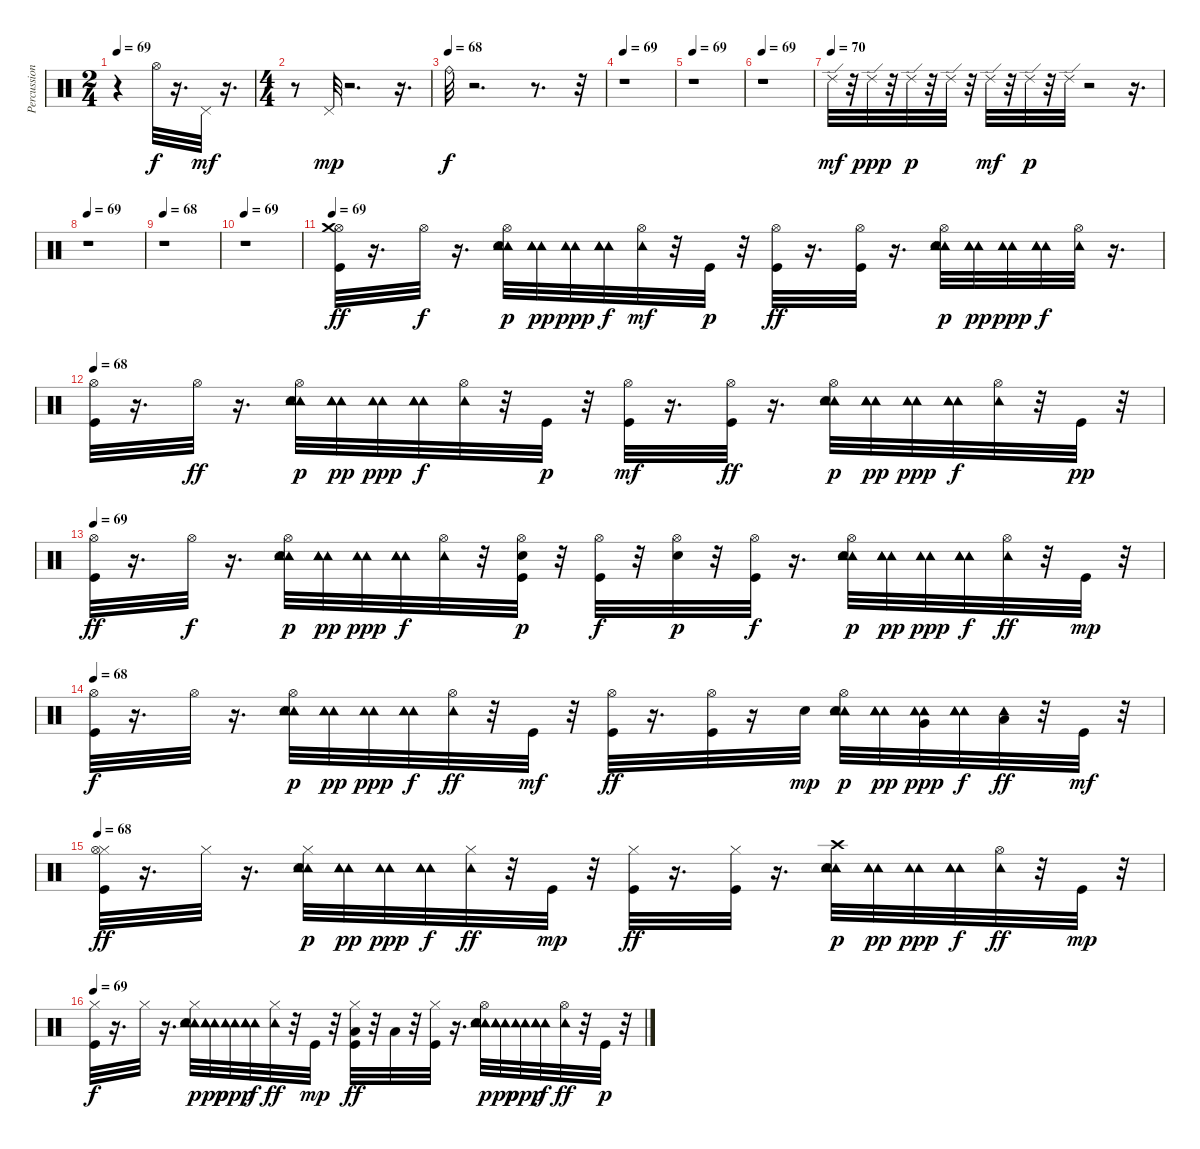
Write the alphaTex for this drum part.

\track ("Percussions" "Percussion") {instrument percussion}
\staff {score}
\articulation defaults
\ts (2 4)
\tempo 69
\clef neutral
\ks c
r.4{dy mf} "Hi-Hat (open)".32{dy f} r.16{d} "Pedal Hi-Hat (hit)".32{dy mf} r.16{d} |
\ts (4 4)
r.8 "Pedal Hi-Hat (hit)".32{dy mp} r.2{d} r.16{d} |
\tempo (68)
"Ride (bell)".32{dy f} r.2{d} r.8{d} r.32 |
\tempo 69
r.1 |
\tempo 69
r.1 |
\tempo 69
r.1 |
\tempo (70)
"Ride (edge) 2".32{dy mf} r.32 "Ride (edge) 2".32{dy ppp} r.32 "Ride (edge) 2".32{dy p} r.32 "Ride (edge) 2".32 r.32 "Ride (edge) 2".32{dy mf} r.32 "Ride (edge) 2".32{dy p} r.32 "Ride (edge) 2".32 r.2 r.16{d} |
\tempo 69
r.1 |
\tempo 68
r.1 |
\tempo 69
r.1 |
\tempo 69
("Kick (hit)" "Hi-Hat (open)" "Crash medium (hit)").32{dy ff} r.16{d} "Hi-Hat (open)".32{dy f} r.16{d} ("Tambourine (hit)" "Tambourine (hit)" "Electric Snare (hit)" "Hi-Hat (open)" "Tambourine (hit)").32{dy p} ("Tambourine (hit)" "Tambourine (hit)" "Tambourine (hit)").32{dy pp} ("Tambourine (hit)" "Tambourine (hit)").32{dy ppp} ("Tambourine (hit)" "Tambourine (hit)" "Tambourine (hit)").32{dy f} ("Tambourine (hit)" "Hi-Hat (open)").32{dy mf} r.32 "Kick (hit)".32{dy p} r.32 ("Kick (hit)" "Hi-Hat (open)").32{dy ff} r.16{d} ("Kick (hit)" "Hi-Hat (open)").32 r.16{d} ("Tambourine (hit)" "Hi-Hat (open)" "Tambourine (hit)" "Electric Snare (hit)" "Tambourine (hit)").32{dy p} ("Tambourine (hit)" "Tambourine (hit)" "Tambourine (hit)").32{dy pp} ("Tambourine (hit)" "Tambourine (hit)").32{dy ppp} ("Tambourine (hit)" "Tambourine (hit)" "Tambourine (hit)").32{dy f} ("Tambourine (hit)" "Hi-Hat (open)").32 r.16{d} |
\tempo 68
("Kick (hit)" "Hi-Hat (open)").32 r.16{d} "Hi-Hat (open)".32{dy ff} r.16{d} ("Tambourine (hit)" "Electric Snare (hit)" "Tambourine (hit)" "Hi-Hat (open)" "Tambourine (hit)").32{dy p} ("Tambourine (hit)" "Tambourine (hit)" "Tambourine (hit)").32{dy pp} ("Tambourine (hit)" "Tambourine (hit)").32{dy ppp} ("Tambourine (hit)" "Tambourine (hit)" "Tambourine (hit)").32{dy f} ("Tambourine (hit)" "Hi-Hat (open)").32 r.32 "Kick (hit)".32{dy p} r.32 ("Kick (hit)" "Hi-Hat (open)").32{dy mf} r.16{d} ("Hi-Hat (open)" "Kick (hit)").32{dy ff} r.16{d} ("Tambourine (hit)" "Hi-Hat (open)" "Electric Snare (hit)" "Tambourine (hit)" "Tambourine (hit)").32{dy p} ("Tambourine (hit)" "Tambourine (hit)" "Tambourine (hit)").32{dy pp} ("Tambourine (hit)" "Tambourine (hit)").32{dy ppp} ("Tambourine (hit)" "Tambourine (hit)" "Tambourine (hit)").32{dy f} ("Tambourine (hit)" "Hi-Hat (open)").32 r.32 "Kick (hit)".32{dy pp} r.32 |
\tempo 69
("Hi-Hat (open)" "Kick (hit)").32{dy ff} r.16{d} "Hi-Hat (open)".32{dy f} r.16{d} ("Tambourine (hit)" "Hi-Hat (open)" "Electric Snare (hit)" "Tambourine (hit)" "Tambourine (hit)").32{dy p} ("Tambourine (hit)" "Tambourine (hit)" "Tambourine (hit)").32{dy pp} ("Tambourine (hit)" "Tambourine (hit)").32{dy ppp} ("Tambourine (hit)" "Tambourine (hit)" "Tambourine (hit)").32{dy f} ("Tambourine (hit)" "Hi-Hat (open)").32 r.32 ("Hi-Hat (open)" "Kick (hit)" "Electric Snare (hit)").32{dy p} r.32 ("Hi-Hat (open)" "Kick (hit)").32{dy f} r.32 ("Electric Snare (hit)" "Hi-Hat (open)").32{dy p} r.32 ("Hi-Hat (open)" "Kick (hit)").32{dy f} r.16{d} ("Tambourine (hit)" "Tambourine (hit)" "Electric Snare (hit)" "Hi-Hat (open)" "Tambourine (hit)").32{dy p} ("Tambourine (hit)" "Tambourine (hit)" "Tambourine (hit)").32{dy pp} ("Tambourine (hit)" "Tambourine (hit)").32{dy ppp} ("Tambourine (hit)" "Tambourine (hit)" "Tambourine (hit)").32{dy f} ("Tambourine (hit)" "Hi-Hat (open)").32{dy ff} r.32 "Kick (hit)".32{dy mp} r.32 |
\tempo 68
("Kick (hit)" "Hi-Hat (open)").32{dy f} r.16{d} "Hi-Hat (open)".32 r.16{d} ("Tambourine (hit)" "Electric Snare (hit)" "Tambourine (hit)" "Hi-Hat (open)" "Tambourine (hit)").32{dy p} ("Tambourine (hit)" "Tambourine (hit)" "Tambourine (hit)").32{dy pp} ("Tambourine (hit)" "Tambourine (hit)").32{dy ppp} ("Tambourine (hit)" "Tambourine (hit)" "Tambourine (hit)").32{dy f} ("Tambourine (hit)" "Hi-Hat (open)").32{dy ff} r.32 "Kick (hit)".32{dy mf} r.32 ("Kick (hit)" "Hi-Hat (open)").32{dy ff} r.16{d} ("Kick (hit)" "Hi-Hat (open)").32 r.16 "Electric Snare (hit)".32{dy mp} ("Tambourine (hit)" "Hi-Hat (open)" "Electric Snare (hit)" "Tambourine (hit)" "Tambourine (hit)").32{dy p} ("Tambourine (hit)" "Tambourine (hit)" "Tambourine (hit)").32{dy pp} ("Tambourine (hit)" "Very Low Tom (hit)" "Tambourine (hit)").32{dy ppp} ("Tambourine (hit)" "Tambourine (hit)" "Tambourine (hit)").32{dy f} ("Tambourine (hit)" "Low Floor Tom (hit)").32{dy ff} r.32 "Kick (hit)".32{dy mf} r.32 |
\tempo 68
("Hi-Hat (closed)" "Kick (hit)" "Hi-Hat (open)").32{dy ff} r.16{d} "Hi-Hat (closed)".32 r.16{d} ("Tambourine (hit)" "Hi-Hat (closed)" "Electric Snare (hit)" "Tambourine (hit)" "Tambourine (hit)").32{dy p} ("Tambourine (hit)" "Tambourine (hit)" "Tambourine (hit)").32{dy pp} ("Tambourine (hit)" "Tambourine (hit)").32{dy ppp} ("Tambourine (hit)" "Tambourine (hit)" "Tambourine (hit)").32{dy f} ("Tambourine (hit)" "Hi-Hat (closed)").32{dy ff} r.32 "Kick (hit)".32{dy mp} r.32 ("Hi-Hat (closed)" "Kick (hit)").32{dy ff} r.16{d} ("Hi-Hat (closed)" "Kick (hit)").32 r.16{d} ("Tambourine (hit)" "Crash high (hit)" "Tambourine (hit)" "Electric Snare (hit)" "Tambourine (hit)").32{dy p} ("Tambourine (hit)" "Tambourine (hit)" "Tambourine (hit)").32{dy pp} ("Tambourine (hit)" "Tambourine (hit)").32{dy ppp} ("Tambourine (hit)" "Tambourine (hit)" "Tambourine (hit)").32{dy f} ("Tambourine (hit)" "Hi-Hat (open)").32{dy ff} r.32 "Kick (hit)".32{dy mp} r.32 |
\tempo 69
("Hi-Hat (closed)" "Kick (hit)").32{dy f} r.16{d} "Hi-Hat (closed)".32 r.16{d} ("Tambourine (hit)" "Electric Snare (hit)" "Tambourine (hit)" "Hi-Hat (closed)" "Tambourine (hit)").32{dy p} ("Tambourine (hit)" "Tambourine (hit)" "Tambourine (hit)").32{dy pp} ("Tambourine (hit)" "Tambourine (hit)").32{dy ppp} ("Tambourine (hit)" "Tambourine (hit)" "Tambourine (hit)").32{dy f} ("Tambourine (hit)" "Hi-Hat (closed)").32{dy ff} r.32 "Kick (hit)".32{dy mp} r.32 ("Low Tom (hit)" "Kick (hit)" "Hi-Hat (closed)").32{dy ff} r.32 "Low Tom (hit)".32 r.32 ("Hi-Hat (closed)" "Kick (hit)").32 r.16{d} ("Tambourine (hit)" "Hi-Hat (open)" "Tambourine (hit)" "Electric Snare (hit)" "Tambourine (hit)").32{dy p} ("Tambourine (hit)" "Tambourine (hit)" "Tambourine (hit)").32{dy pp} ("Tambourine (hit)" "Tambourine (hit)").32{dy ppp} ("Tambourine (hit)" "Tambourine (hit)" "Tambourine (hit)").32{dy f} ("Tambourine (hit)" "Hi-Hat (open)").32{dy ff} r.32 "Kick (hit)".32{dy p} r.32
